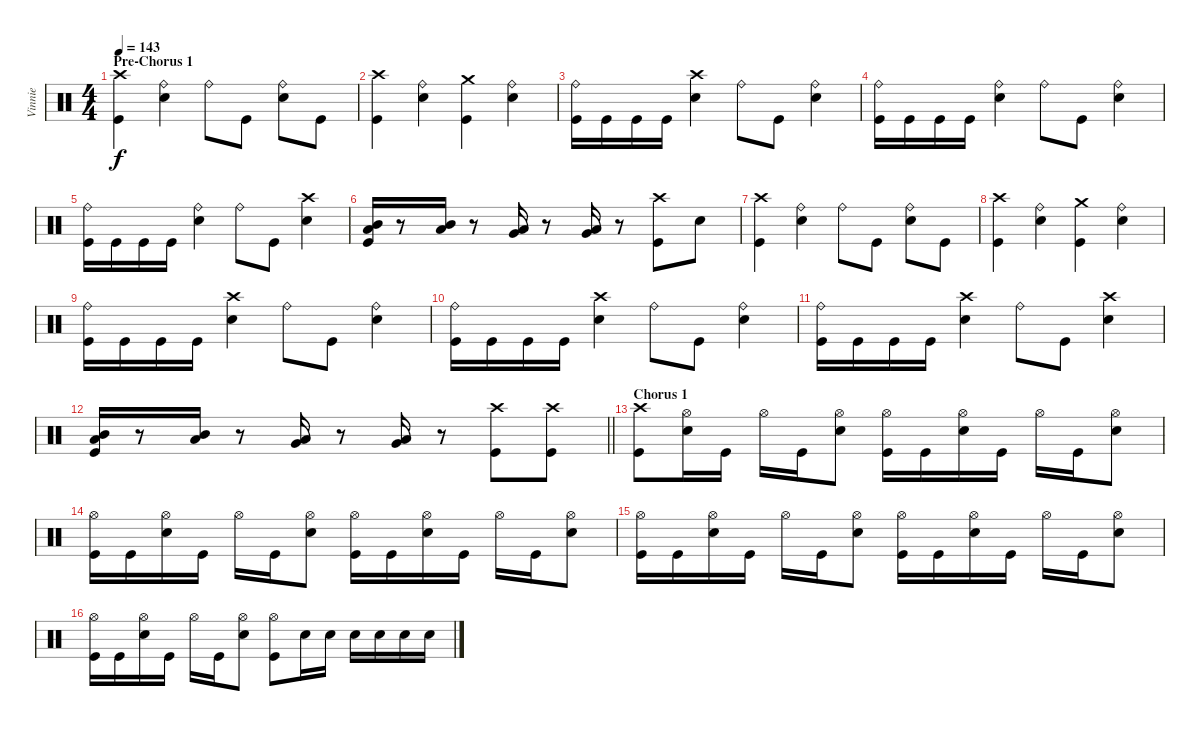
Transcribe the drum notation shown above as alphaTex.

\track ("Vinnie" "Vinnie") {instrument percussion}
\staff {score}
\articulation defaults
\ts (4 4)
\section ("" "Pre-Chorus 1")
\tempo 143
\clef neutral
\ks c
("Crash high (hit)" "Kick (hit)").4{dy f} ("Ride (bell)" "Electric Snare (hit)").4 "Ride (bell)".8 "Kick (hit)".8 ("Ride (bell)" "Electric Snare (hit)").8 "Kick (hit)".8 |
("Crash high (hit)" "Kick (hit)").4 ("Ride (bell)" "Electric Snare (hit)").4 ("Crash medium (hit)" "Kick (hit)").4 ("Ride (bell)" "Electric Snare (hit)").4 |
("Ride (bell)" "Kick (hit)").16 "Kick (hit)".16 "Kick (hit)".16 "Kick (hit)".16 ("Crash high (hit)" "Electric Snare (hit)").4 "Ride (bell)".8 "Kick (hit)".8 ("Ride (bell)" "Electric Snare (hit)").4 |
("Ride (bell)" "Kick (hit)").16 "Kick (hit)".16 "Kick (hit)".16 "Kick (hit)".16 ("Ride (bell)" "Electric Snare (hit)").4 "Ride (bell)".8 "Kick (hit)".8 ("Ride (bell)" "Electric Snare (hit)").4 |
("Ride (bell)" "Kick (hit)").16 "Kick (hit)".16 "Kick (hit)".16 "Kick (hit)".16 ("Ride (bell)" "Electric Snare (hit)").4 "Ride (bell)".8 "Kick (hit)".8 ("Crash high (hit)" "Electric Snare (hit)").4 |
("Mid Tom (hit)" "Low Tom (hit)" "Kick (hit)").16 r.8 ("Mid Tom (hit)" "Low Tom (hit)").16 r.8 ("Low Tom (hit)" "Very Low Tom (hit)").16 r.8 ("Low Tom (hit)" "Very Low Tom (hit)").16 r.8 ("Crash high (hit)" "Kick (hit)").8 "Electric Snare (hit)".8 |
("Crash high (hit)" "Kick (hit)").4 ("Ride (bell)" "Electric Snare (hit)").4 "Ride (bell)".8 "Kick (hit)".8 ("Ride (bell)" "Electric Snare (hit)").8 "Kick (hit)".8 |
("Crash high (hit)" "Kick (hit)").4 ("Ride (bell)" "Electric Snare (hit)").4 ("Crash medium (hit)" "Kick (hit)").4 ("Ride (bell)" "Electric Snare (hit)").4 |
("Ride (bell)" "Kick (hit)").16 "Kick (hit)".16 "Kick (hit)".16 "Kick (hit)".16 ("Crash high (hit)" "Electric Snare (hit)").4 "Ride (bell)".8 "Kick (hit)".8 ("Ride (bell)" "Electric Snare (hit)").4 |
("Ride (bell)" "Kick (hit)").16 "Kick (hit)".16 "Kick (hit)".16 "Kick (hit)".16 ("Crash high (hit)" "Electric Snare (hit)").4 "Ride (bell)".8 "Kick (hit)".8 ("Ride (bell)" "Electric Snare (hit)").4 |
("Ride (bell)" "Kick (hit)").16 "Kick (hit)".16 "Kick (hit)".16 "Kick (hit)".16 ("Crash high (hit)" "Electric Snare (hit)").4 "Ride (bell)".8 "Kick (hit)".8 ("Crash high (hit)" "Electric Snare (hit)").4 |
\barLineRight lightlight
("Mid Tom (hit)" "Low Tom (hit)" "Kick (hit)").16 r.8 ("Mid Tom (hit)" "Low Tom (hit)").16 r.8 ("Low Tom (hit)" "Very Low Tom (hit)").16 r.8 ("Low Tom (hit)" "Very Low Tom (hit)").16 r.8 ("Crash high (hit)" "Kick (hit)").8 ("Crash high (hit)" "Kick (hit)").8 |
\section ("" "Chorus 1")
("Crash high (hit)" "Kick (hit)").8 ("Hi-Hat (open)" "Electric Snare (hit)").16 "Kick (hit)".16 "Hi-Hat (open)".16 "Kick (hit)".16 ("Hi-Hat (open)" "Electric Snare (hit)").8 ("Hi-Hat (open)" "Kick (hit)").16 "Kick (hit)".16 ("Hi-Hat (open)" "Electric Snare (hit)").16 "Kick (hit)".16 "Hi-Hat (open)".16 "Kick (hit)".16 ("Hi-Hat (open)" "Electric Snare (hit)").8 |
("Hi-Hat (open)" "Kick (hit)").16 "Kick (hit)".16 ("Hi-Hat (open)" "Electric Snare (hit)").16 "Kick (hit)".16 "Hi-Hat (open)".16 "Kick (hit)".16 ("Hi-Hat (open)" "Electric Snare (hit)").8 ("Hi-Hat (open)" "Kick (hit)").16 "Kick (hit)".16 ("Hi-Hat (open)" "Electric Snare (hit)").16 "Kick (hit)".16 "Hi-Hat (open)".16 "Kick (hit)".16 ("Hi-Hat (open)" "Electric Snare (hit)").8 |
("Hi-Hat (open)" "Kick (hit)").16 "Kick (hit)".16 ("Hi-Hat (open)" "Electric Snare (hit)").16 "Kick (hit)".16 "Hi-Hat (open)".16 "Kick (hit)".16 ("Hi-Hat (open)" "Electric Snare (hit)").8 ("Hi-Hat (open)" "Kick (hit)").16 "Kick (hit)".16 ("Hi-Hat (open)" "Electric Snare (hit)").16 "Kick (hit)".16 "Hi-Hat (open)".16 "Kick (hit)".16 ("Hi-Hat (open)" "Electric Snare (hit)").8 |
("Hi-Hat (open)" "Kick (hit)").16 "Kick (hit)".16 ("Hi-Hat (open)" "Electric Snare (hit)").16 "Kick (hit)".16 "Hi-Hat (open)".16 "Kick (hit)".16 ("Hi-Hat (open)" "Electric Snare (hit)").8 ("Hi-Hat (open)" "Kick (hit)").8 "Electric Snare (hit)".16 "Electric Snare (hit)".16 "Electric Snare (hit)".16 "Electric Snare (hit)".16 "Electric Snare (hit)".16 "Electric Snare (hit)".16
